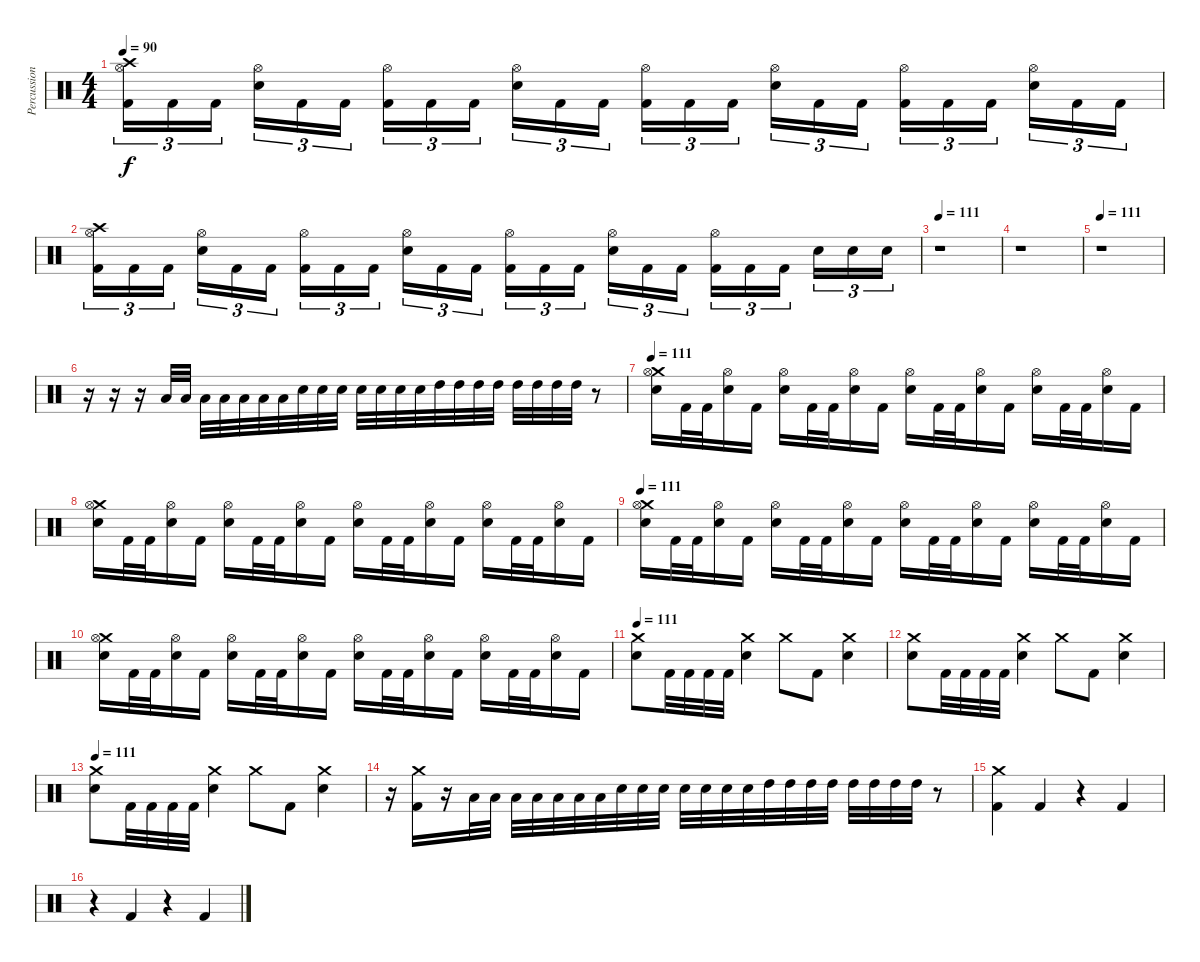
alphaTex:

\track ("Percussion" "Percussion") {instrument percussion}
\staff {score}
\articulation defaults
\ts (4 4)
\tempo 90
\clef neutral
\ks c
("Crash high (hit)" "Hi-Hat (open)" "Kick (hit) 2").16{tu (3 2) dy f} "Kick (hit) 2".16{tu (3 2)} "Kick (hit) 2".16{tu (3 2) beam splitsecondary} ("Hi-Hat (open)" "Snare (hit) 2").16{tu (3 2)} "Kick (hit) 2".16{tu (3 2)} "Kick (hit) 2".16{tu (3 2)} ("Hi-Hat (open)" "Kick (hit) 2").16{tu (3 2)} "Kick (hit) 2".16{tu (3 2)} "Kick (hit) 2".16{tu (3 2) beam splitsecondary} ("Hi-Hat (open)" "Snare (hit) 2").16{tu (3 2)} "Kick (hit) 2".16{tu (3 2)} "Kick (hit) 2".16{tu (3 2)} ("Hi-Hat (open)" "Kick (hit) 2").16{tu (3 2)} "Kick (hit) 2".16{tu (3 2)} "Kick (hit) 2".16{tu (3 2) beam splitsecondary} ("Hi-Hat (open)" "Snare (hit) 2").16{tu (3 2)} "Kick (hit) 2".16{tu (3 2)} "Kick (hit) 2".16{tu (3 2)} ("Hi-Hat (open)" "Kick (hit) 2").16{tu (3 2)} "Kick (hit) 2".16{tu (3 2)} "Kick (hit) 2".16{tu (3 2) beam splitsecondary} ("Hi-Hat (open)" "Snare (hit) 2").16{tu (3 2)} "Kick (hit) 2".16{tu (3 2)} "Kick (hit) 2".16{tu (3 2)} |
("Crash high (hit)" "Hi-Hat (open)" "Kick (hit) 2").16{tu (3 2)} "Kick (hit) 2".16{tu (3 2)} "Kick (hit) 2".16{tu (3 2) beam splitsecondary} ("Hi-Hat (open)" "Snare (hit) 2").16{tu (3 2)} "Kick (hit) 2".16{tu (3 2)} "Kick (hit) 2".16{tu (3 2)} ("Hi-Hat (open)" "Kick (hit) 2").16{tu (3 2)} "Kick (hit) 2".16{tu (3 2)} "Kick (hit) 2".16{tu (3 2) beam splitsecondary} ("Hi-Hat (open)" "Snare (hit) 2").16{tu (3 2)} "Kick (hit) 2".16{tu (3 2)} "Kick (hit) 2".16{tu (3 2)} ("Hi-Hat (open)" "Kick (hit) 2").16{tu (3 2)} "Kick (hit) 2".16{tu (3 2)} "Kick (hit) 2".16{tu (3 2) beam splitsecondary} ("Hi-Hat (open)" "Snare (hit) 2").16{tu (3 2)} "Kick (hit) 2".16{tu (3 2)} "Kick (hit) 2".16{tu (3 2)} ("Hi-Hat (open)" "Kick (hit) 2").16{tu (3 2)} "Kick (hit) 2".16{tu (3 2)} "Kick (hit) 2".16{tu (3 2) beam splitsecondary} "Snare (hit) 2".16{tu (3 2)} "Snare (hit) 2".16{tu (3 2)} "Snare (hit) 2".16{tu (3 2)} |
\tempo 111
r.1 |
r.1 |
\tempo 111
r.1 |
r.16 r.16 r.16 "Low Floor Tom (hit)".32 "Low Floor Tom (hit)".32 "Low Floor Tom (hit)".32 "Low Floor Tom (hit)".32 "Low Floor Tom (hit)".32 "Low Floor Tom (hit)".32 "Low Floor Tom (hit)".32 "Snare (hit) 2".32 "Snare (hit) 2".32 "Snare (hit) 2".32 "Snare (hit) 2".32 "Snare (hit) 2".32 "Snare (hit) 2".32 "Snare (hit) 2".32 "High Tom (hit)".32 "High Tom (hit)".32 "High Tom (hit)".32 "High Tom (hit)".32 "High Tom (hit)".32 "High Tom (hit)".32 "High Tom (hit)".32 "High Tom (hit)".32 r.8 |
\tempo 111
("Crash medium (hit)" "Hi-Hat (open)" "Snare (hit) 2").16 "Kick (hit) 2".32 "Kick (hit) 2".32 ("Hi-Hat (open)" "Snare (hit) 2").16 "Kick (hit) 2".16 ("Hi-Hat (open)" "Snare (hit) 2").16 "Kick (hit) 2".32 "Kick (hit) 2".32 ("Hi-Hat (open)" "Snare (hit) 2").16 "Kick (hit) 2".16 ("Hi-Hat (open)" "Snare (hit) 2").16 "Kick (hit) 2".32 "Kick (hit) 2".32 ("Hi-Hat (open)" "Snare (hit) 2").16 "Kick (hit) 2".16 ("Hi-Hat (open)" "Snare (hit) 2").16 "Kick (hit) 2".32 "Kick (hit) 2".32 ("Hi-Hat (open)" "Snare (hit) 2").16 "Kick (hit) 2".16 |
("Crash medium (hit)" "Hi-Hat (open)" "Snare (hit) 2").16 "Kick (hit) 2".32 "Kick (hit) 2".32 ("Hi-Hat (open)" "Snare (hit) 2").16 "Kick (hit) 2".16 ("Hi-Hat (open)" "Snare (hit) 2").16 "Kick (hit) 2".32 "Kick (hit) 2".32 ("Hi-Hat (open)" "Snare (hit) 2").16 "Kick (hit) 2".16 ("Hi-Hat (open)" "Snare (hit) 2").16 "Kick (hit) 2".32 "Kick (hit) 2".32 ("Hi-Hat (open)" "Snare (hit) 2").16 "Kick (hit) 2".16 ("Hi-Hat (open)" "Snare (hit) 2").16 "Kick (hit) 2".32 "Kick (hit) 2".32 ("Hi-Hat (open)" "Snare (hit) 2").16 "Kick (hit) 2".16 |
\tempo 111
("Crash medium (hit)" "Hi-Hat (open)" "Snare (hit) 2").16 "Kick (hit) 2".32 "Kick (hit) 2".32 ("Hi-Hat (open)" "Snare (hit) 2").16 "Kick (hit) 2".16 ("Hi-Hat (open)" "Snare (hit) 2").16 "Kick (hit) 2".32 "Kick (hit) 2".32 ("Hi-Hat (open)" "Snare (hit) 2").16 "Kick (hit) 2".16 ("Hi-Hat (open)" "Snare (hit) 2").16 "Kick (hit) 2".32 "Kick (hit) 2".32 ("Hi-Hat (open)" "Snare (hit) 2").16 "Kick (hit) 2".16 ("Hi-Hat (open)" "Snare (hit) 2").16 "Kick (hit) 2".32 "Kick (hit) 2".32 ("Hi-Hat (open)" "Snare (hit) 2").16 "Kick (hit) 2".16 |
("Crash medium (hit)" "Hi-Hat (open)" "Snare (hit) 2").16 "Kick (hit) 2".32 "Kick (hit) 2".32 ("Hi-Hat (open)" "Snare (hit) 2").16 "Kick (hit) 2".16 ("Hi-Hat (open)" "Snare (hit) 2").16 "Kick (hit) 2".32 "Kick (hit) 2".32 ("Hi-Hat (open)" "Snare (hit) 2").16 "Kick (hit) 2".16 ("Hi-Hat (open)" "Snare (hit) 2").16 "Kick (hit) 2".32 "Kick (hit) 2".32 ("Hi-Hat (open)" "Snare (hit) 2").16 "Kick (hit) 2".16 ("Hi-Hat (open)" "Snare (hit) 2").16 "Kick (hit) 2".32 "Kick (hit) 2".32 ("Hi-Hat (open)" "Snare (hit) 2").16 "Kick (hit) 2".16 |
\tempo 111
("Snare (hit) 2" "Crash medium (hit)").8 "Kick (hit) 2".32 "Kick (hit) 2".32 "Kick (hit) 2".32 "Kick (hit) 2".32 ("Snare (hit) 2" "Crash medium (hit)").4 "Crash medium (hit)".8 "Kick (hit) 2".8 ("Crash medium (hit)" "Snare (hit) 2").4 |
("Snare (hit) 2" "Crash medium (hit)").8 "Kick (hit) 2".32 "Kick (hit) 2".32 "Kick (hit) 2".32 "Kick (hit) 2".32 ("Snare (hit) 2" "Crash medium (hit)").4 "Crash medium (hit)".8 "Kick (hit) 2".8 ("Crash medium (hit)" "Snare (hit) 2").4 |
\tempo 111
("Snare (hit) 2" "Crash medium (hit)").8 "Kick (hit) 2".32 "Kick (hit) 2".32 "Kick (hit) 2".32 "Kick (hit) 2".32 ("Snare (hit) 2" "Crash medium (hit)").4 "Crash medium (hit)".8 "Kick (hit) 2".8 ("Crash medium (hit)" "Snare (hit) 2").4 |
r.16 ("Crash medium (hit)" "Kick (hit) 2").16 r.16 "Low Floor Tom (hit)".32 "Low Floor Tom (hit)".32 "Low Floor Tom (hit)".32 "Low Floor Tom (hit)".32 "Low Floor Tom (hit)".32 "Low Floor Tom (hit)".32 "Low Floor Tom (hit)".32 "Snare (hit) 2".32 "Snare (hit) 2".32 "Snare (hit) 2".32 "Snare (hit) 2".32 "Snare (hit) 2".32 "Snare (hit) 2".32 "Snare (hit) 2".32 "High Tom (hit)".32 "High Tom (hit)".32 "High Tom (hit)".32 "High Tom (hit)".32 "High Tom (hit)".32 "High Tom (hit)".32 "High Tom (hit)".32 "High Tom (hit)".32 r.8 |
("Crash medium (hit)" "Kick (hit) 2").4 "Kick (hit) 2".4 r.4 "Kick (hit) 2".4 |
r.4 "Kick (hit) 2".4 r.4 "Kick (hit) 2".4
